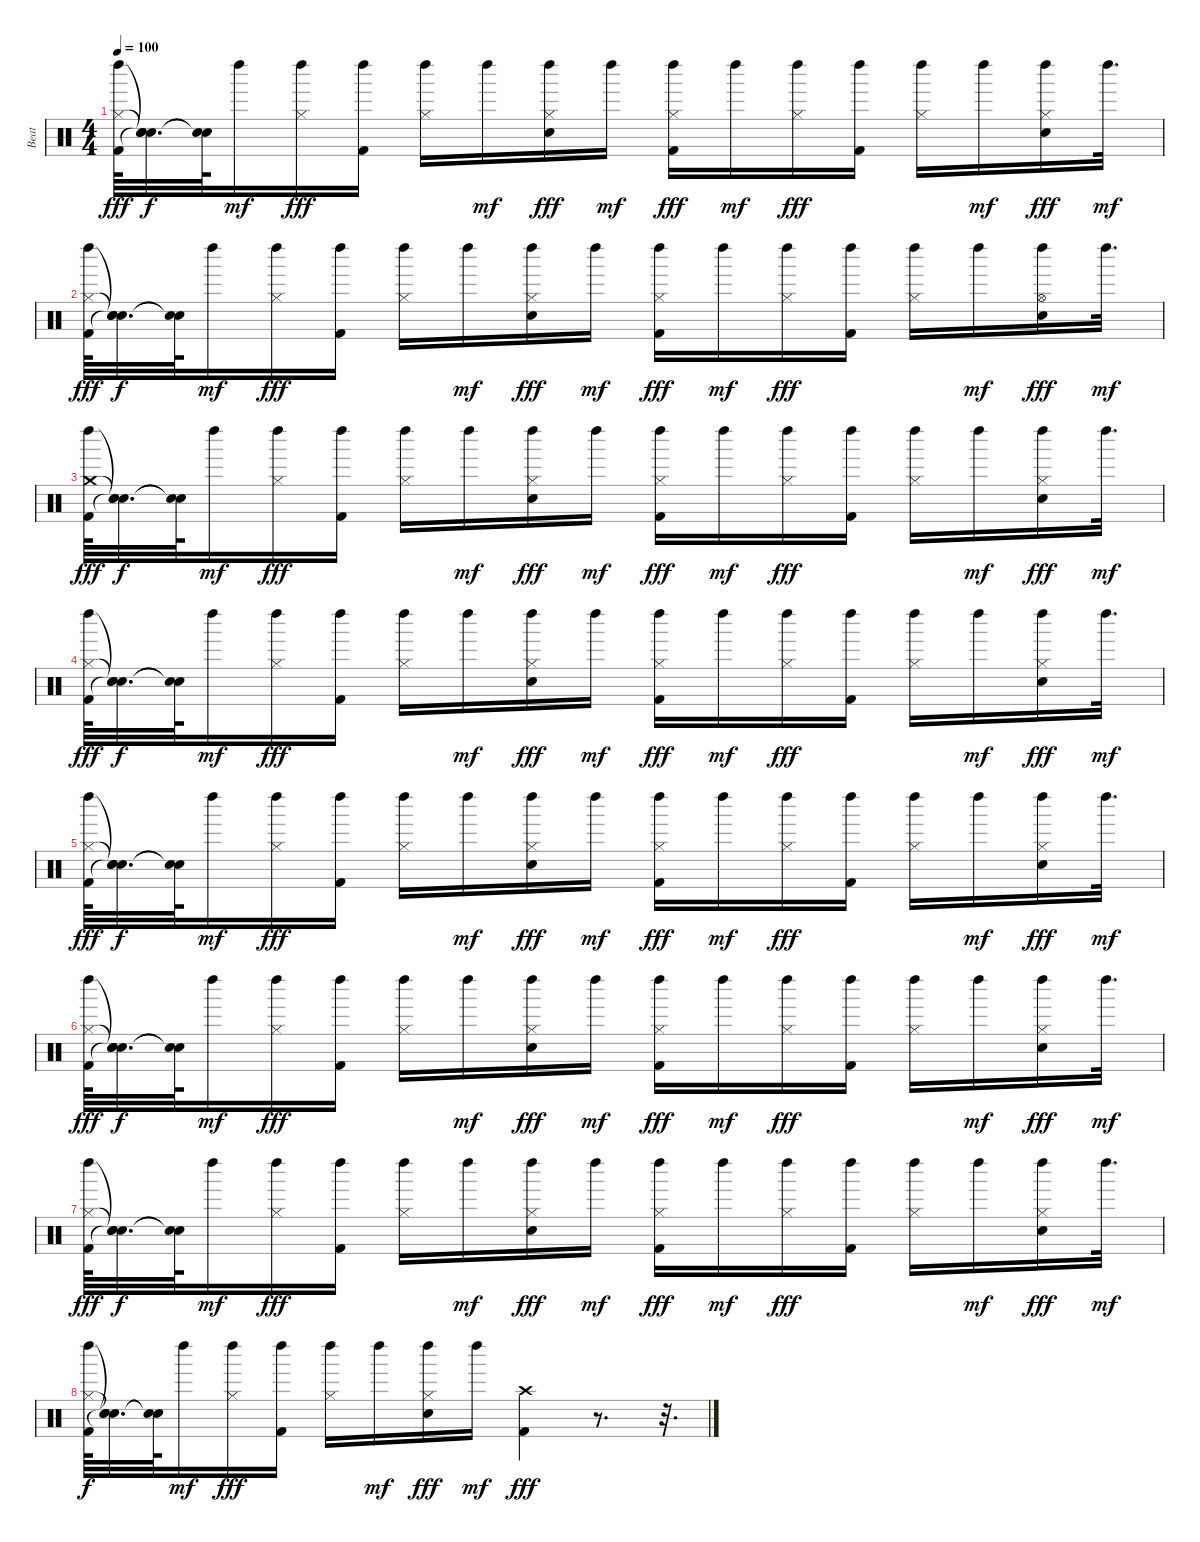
\track ("Beat" "Beat") {instrument percussion}
\staff {score}
\articulation defaults
\ts (4 4)
\tempo 100
\clef neutral
\ks c
("Left Maraca (hit)" "Hi-Hat (closed)" "Kick (hit) 2").64{dy fff} ("Snare (hit)"{t} "Snare (hit)"{t} "Snare (hit)"{t}).32{d dy f} ("Snare (hit)"{t} "Snare (hit)"{t}).64 "Left Maraca (hit)".16{dy mf} ("Left Maraca (hit)" "Hi-Hat (closed)").16{dy fff} ("Left Maraca (hit)" "Kick (hit) 2").16 ("Left Maraca (hit)" "Hi-Hat (closed)").16 "Left Maraca (hit)".16{dy mf} ("Left Maraca (hit)" "Hi-Hat (closed)" "Electric Snare (hit)").16{dy fff} "Left Maraca (hit)".16{dy mf} ("Left Maraca (hit)" "Hi-Hat (closed)" "Kick (hit) 2").16{dy fff} "Left Maraca (hit)".16{dy mf} ("Left Maraca (hit)" "Hi-Hat (closed)").16{dy fff} ("Left Maraca (hit)" "Kick (hit) 2").16 ("Left Maraca (hit)" "Hi-Hat (closed)").16 "Left Maraca (hit)".16{dy mf} ("Left Maraca (hit)" "Hi-Hat (closed)" "Electric Snare (hit)").16{dy fff} "Left Maraca (hit)".32{d dy mf} |
("Left Maraca (hit)" "Hi-Hat (closed)" "Kick (hit) 2").64{dy fff} ("Snare (hit)"{t} "Snare (hit)"{t} "Snare (hit)"{t}).32{d dy f} ("Snare (hit)"{t} "Snare (hit)"{t}).64 "Left Maraca (hit)".16{dy mf} ("Left Maraca (hit)" "Hi-Hat (closed)").16{dy fff} ("Left Maraca (hit)" "Kick (hit) 2").16 ("Left Maraca (hit)" "Hi-Hat (closed)").16 "Left Maraca (hit)".16{dy mf} ("Left Maraca (hit)" "Hi-Hat (closed)" "Electric Snare (hit)").16{dy fff} "Left Maraca (hit)".16{dy mf} ("Left Maraca (hit)" "Hi-Hat (closed)" "Kick (hit) 2").16{dy fff} "Left Maraca (hit)".16{dy mf} ("Left Maraca (hit)" "Hi-Hat (closed)").16{dy fff} ("Left Maraca (hit)" "Kick (hit) 2").16 ("Left Maraca (hit)" "Hi-Hat (closed)").16 "Left Maraca (hit)".16{dy mf} ("Left Maraca (hit)" "Hi-Hat (open)" "Electric Snare (hit)").16{dy fff} "Left Maraca (hit)".32{d dy mf} |
("Left Maraca (hit)" "Crash medium (hit)" "Kick (hit) 2").64{dy fff} ("Snare (hit)"{t} "Snare (hit)"{t} "Snare (hit)"{t}).32{d dy f} ("Snare (hit)"{t} "Snare (hit)"{t}).64 "Left Maraca (hit)".16{dy mf} ("Left Maraca (hit)" "Hi-Hat (closed)").16{dy fff} ("Left Maraca (hit)" "Kick (hit) 2").16 ("Left Maraca (hit)" "Hi-Hat (closed)").16 "Left Maraca (hit)".16{dy mf} ("Left Maraca (hit)" "Hi-Hat (closed)" "Electric Snare (hit)").16{dy fff} "Left Maraca (hit)".16{dy mf} ("Left Maraca (hit)" "Hi-Hat (closed)" "Kick (hit) 2").16{dy fff} "Left Maraca (hit)".16{dy mf} ("Left Maraca (hit)" "Hi-Hat (closed)").16{dy fff} ("Left Maraca (hit)" "Kick (hit) 2").16 ("Left Maraca (hit)" "Hi-Hat (closed)").16 "Left Maraca (hit)".16{dy mf} ("Left Maraca (hit)" "Hi-Hat (closed)" "Electric Snare (hit)").16{dy fff} "Left Maraca (hit)".32{d dy mf} |
("Left Maraca (hit)" "Hi-Hat (closed)" "Kick (hit) 2").64{dy fff} ("Snare (hit)"{t} "Snare (hit)"{t} "Snare (hit)"{t}).32{d dy f} ("Snare (hit)"{t} "Snare (hit)"{t}).64 "Left Maraca (hit)".16{dy mf} ("Left Maraca (hit)" "Hi-Hat (closed)").16{dy fff} ("Left Maraca (hit)" "Kick (hit) 2").16 ("Left Maraca (hit)" "Hi-Hat (closed)").16 "Left Maraca (hit)".16{dy mf} ("Left Maraca (hit)" "Hi-Hat (closed)" "Electric Snare (hit)").16{dy fff} "Left Maraca (hit)".16{dy mf} ("Left Maraca (hit)" "Hi-Hat (closed)" "Kick (hit) 2").16{dy fff} "Left Maraca (hit)".16{dy mf} ("Left Maraca (hit)" "Hi-Hat (closed)").16{dy fff} ("Left Maraca (hit)" "Kick (hit) 2").16 ("Left Maraca (hit)" "Hi-Hat (closed)").16 "Left Maraca (hit)".16{dy mf} ("Left Maraca (hit)" "Hi-Hat (closed)" "Electric Snare (hit)").16{dy fff} "Left Maraca (hit)".32{d dy mf} |
("Left Maraca (hit)" "Hi-Hat (closed)" "Kick (hit) 2").64{dy fff} ("Snare (hit)"{t} "Snare (hit)"{t} "Snare (hit)"{t}).32{d dy f} ("Snare (hit)"{t} "Snare (hit)"{t}).64 "Left Maraca (hit)".16{dy mf} ("Left Maraca (hit)" "Hi-Hat (closed)").16{dy fff} ("Left Maraca (hit)" "Kick (hit) 2").16 ("Left Maraca (hit)" "Hi-Hat (closed)").16 "Left Maraca (hit)".16{dy mf} ("Left Maraca (hit)" "Hi-Hat (closed)" "Electric Snare (hit)").16{dy fff} "Left Maraca (hit)".16{dy mf} ("Left Maraca (hit)" "Hi-Hat (closed)" "Kick (hit) 2").16{dy fff} "Left Maraca (hit)".16{dy mf} ("Left Maraca (hit)" "Hi-Hat (closed)").16{dy fff} ("Left Maraca (hit)" "Kick (hit) 2").16 ("Left Maraca (hit)" "Hi-Hat (closed)").16 "Left Maraca (hit)".16{dy mf} ("Left Maraca (hit)" "Hi-Hat (closed)" "Electric Snare (hit)").16{dy fff} "Left Maraca (hit)".32{d dy mf} |
("Left Maraca (hit)" "Hi-Hat (closed)" "Kick (hit) 2").64{dy fff} ("Snare (hit)"{t} "Snare (hit)"{t} "Snare (hit)"{t}).32{d dy f} ("Snare (hit)"{t} "Snare (hit)"{t}).64 "Left Maraca (hit)".16{dy mf} ("Left Maraca (hit)" "Hi-Hat (closed)").16{dy fff} ("Left Maraca (hit)" "Kick (hit) 2").16 ("Left Maraca (hit)" "Hi-Hat (closed)").16 "Left Maraca (hit)".16{dy mf} ("Left Maraca (hit)" "Hi-Hat (closed)" "Electric Snare (hit)").16{dy fff} "Left Maraca (hit)".16{dy mf} ("Left Maraca (hit)" "Hi-Hat (closed)" "Kick (hit) 2").16{dy fff} "Left Maraca (hit)".16{dy mf} ("Left Maraca (hit)" "Hi-Hat (closed)").16{dy fff} ("Left Maraca (hit)" "Kick (hit) 2").16 ("Left Maraca (hit)" "Hi-Hat (closed)").16 "Left Maraca (hit)".16{dy mf} ("Left Maraca (hit)" "Hi-Hat (closed)" "Electric Snare (hit)").16{dy fff} "Left Maraca (hit)".32{d dy mf} |
("Left Maraca (hit)" "Hi-Hat (closed)" "Kick (hit) 2").64{dy fff} ("Snare (hit)"{t} "Snare (hit)"{t} "Snare (hit)"{t}).32{d dy f} ("Snare (hit)"{t} "Snare (hit)"{t}).64 "Left Maraca (hit)".16{dy mf} ("Left Maraca (hit)" "Hi-Hat (closed)").16{dy fff} ("Left Maraca (hit)" "Kick (hit) 2").16 ("Left Maraca (hit)" "Hi-Hat (closed)").16 "Left Maraca (hit)".16{dy mf} ("Left Maraca (hit)" "Hi-Hat (closed)" "Electric Snare (hit)").16{dy fff} "Left Maraca (hit)".16{dy mf} ("Left Maraca (hit)" "Hi-Hat (closed)" "Kick (hit) 2").16{dy fff} "Left Maraca (hit)".16{dy mf} ("Left Maraca (hit)" "Hi-Hat (closed)").16{dy fff} ("Left Maraca (hit)" "Kick (hit) 2").16 ("Left Maraca (hit)" "Hi-Hat (closed)").16 "Left Maraca (hit)".16{dy mf} ("Left Maraca (hit)" "Hi-Hat (closed)" "Electric Snare (hit)").16{dy fff} "Left Maraca (hit)".32{d dy mf} |
("Left Maraca (hit)" "Hi-Hat (closed)" "Kick (hit) 2").64{dy f} ("Snare (hit)"{t} "Snare (hit)"{t} "Snare (hit)"{t}).32{d} ("Snare (hit)"{t} "Snare (hit)"{t}).64 "Left Maraca (hit)".16{dy mf} ("Left Maraca (hit)" "Hi-Hat (closed)").16{dy fff} ("Left Maraca (hit)" "Kick (hit) 2").16 ("Left Maraca (hit)" "Hi-Hat (closed)").16 "Left Maraca (hit)".16{dy mf} ("Left Maraca (hit)" "Hi-Hat (closed)" "Electric Snare (hit)").16{dy fff} "Left Maraca (hit)".16{dy mf} ("Crash high (hit)" "Kick (hit) 2").4{dy fff} r.8{d} r.32{d}
